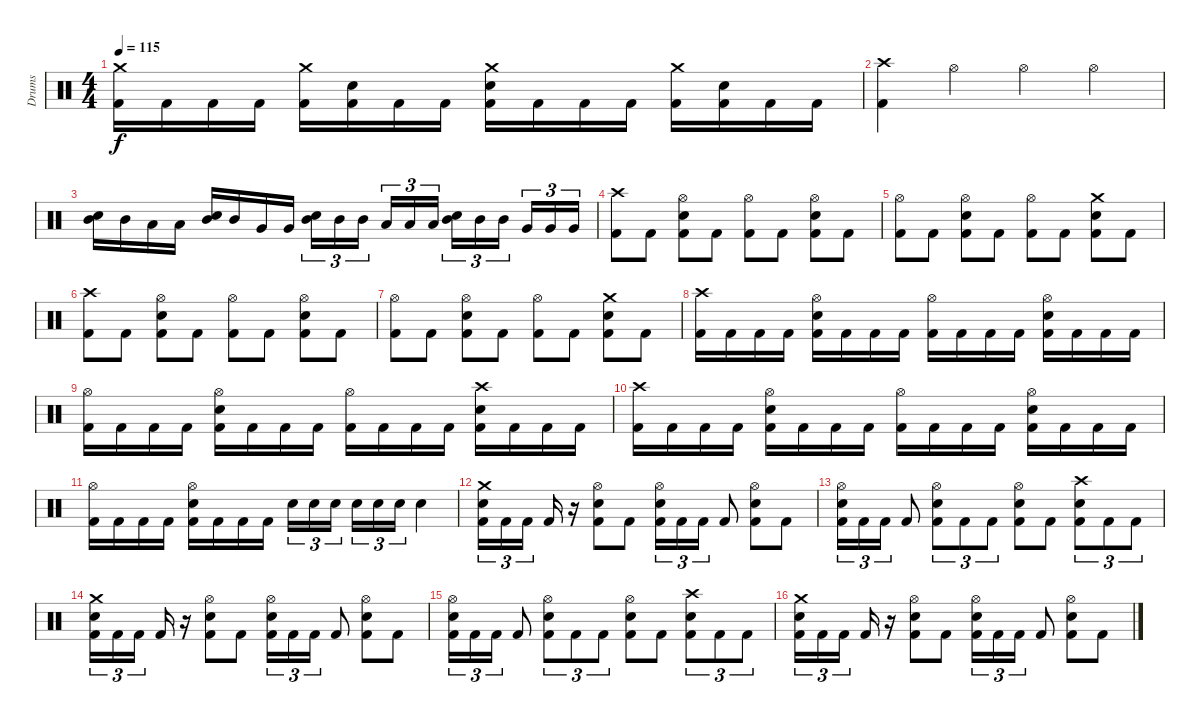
\track ("Drums" "Drums") {instrument percussion}
\staff {score}
\articulation defaults
\ts (4 4)
\tempo 115
\clef neutral
\ks c
("Crash medium (hit)" "Kick (hit) 2").16{dy f} "Kick (hit) 2".16 "Kick (hit) 2".16 "Kick (hit) 2".16 ("Crash medium (hit)" "Kick (hit) 2").16 ("Snare (hit) 2" "Kick (hit) 2").16 "Kick (hit) 2".16 "Kick (hit) 2".16 ("Crash medium (hit)" "Snare (hit) 2" "Kick (hit) 2").16 "Kick (hit) 2".16 "Kick (hit) 2".16 "Kick (hit) 2".16 ("Crash medium (hit)" "Kick (hit) 2").16 ("Snare (hit) 2" "Kick (hit) 2").16 "Kick (hit) 2".16 "Kick (hit) 2".16 |
("Crash high (hit)" "Kick (hit) 2").4 "Hi-Hat (open)".4 "Hi-Hat (open)".4 "Hi-Hat (open)".4 |
("Mid Tom (hit)" "Electric Snare (hit)").16 "Mid Tom (hit)".16 "Low Tom (hit)".16 "Low Tom (hit)".16 ("Mid Tom (hit)" "Electric Snare (hit)").16 "Mid Tom (hit)".16 "Very Low Tom (hit)".16 "Very Low Tom (hit)".16 ("Mid Tom (hit)" "Electric Snare (hit)").16{tu (3 2)} "Mid Tom (hit)".16{tu (3 2)} "Mid Tom (hit)".16{tu (3 2) beam splitsecondary} "Low Tom (hit)".16{tu (3 2)} "Low Tom (hit)".16{tu (3 2)} "Low Tom (hit)".16{tu (3 2)} ("Mid Tom (hit)" "Electric Snare (hit)").16{tu (3 2)} "Mid Tom (hit)".16{tu (3 2)} "Mid Tom (hit)".16{tu (3 2) beam splitsecondary} "Very Low Tom (hit)".16{tu (3 2)} "Very Low Tom (hit)".16{tu (3 2)} "Very Low Tom (hit)".16{tu (3 2)} |
("Crash high (hit)" "Kick (hit) 2").8 "Kick (hit) 2".8 ("Hi-Hat (open)" "Snare (hit) 2" "Kick (hit) 2").8 "Kick (hit) 2".8 ("Hi-Hat (open)" "Kick (hit) 2").8 "Kick (hit) 2".8 ("Hi-Hat (open)" "Snare (hit) 2" "Kick (hit) 2").8 "Kick (hit) 2".8 |
("Hi-Hat (open)" "Kick (hit) 2").8 "Kick (hit) 2".8 ("Hi-Hat (open)" "Snare (hit) 2" "Kick (hit) 2").8 "Kick (hit) 2".8 ("Hi-Hat (open)" "Kick (hit) 2").8 "Kick (hit) 2".8 ("Crash medium (hit)" "Snare (hit) 2" "Kick (hit) 2").8 "Kick (hit) 2".8 |
("Crash high (hit)" "Kick (hit) 2").8 "Kick (hit) 2".8 ("Hi-Hat (open)" "Snare (hit) 2" "Kick (hit) 2").8 "Kick (hit) 2".8 ("Hi-Hat (open)" "Kick (hit) 2").8 "Kick (hit) 2".8 ("Hi-Hat (open)" "Snare (hit) 2" "Kick (hit) 2").8 "Kick (hit) 2".8 |
("Hi-Hat (open)" "Kick (hit) 2").8 "Kick (hit) 2".8 ("Hi-Hat (open)" "Snare (hit) 2" "Kick (hit) 2").8 "Kick (hit) 2".8 ("Hi-Hat (open)" "Kick (hit) 2").8 "Kick (hit) 2".8 ("Crash medium (hit)" "Snare (hit) 2" "Kick (hit) 2").8 "Kick (hit) 2".8 |
("Crash high (hit)" "Kick (hit) 2").16 "Kick (hit) 2".16 "Kick (hit) 2".16 "Kick (hit) 2".16 ("Hi-Hat (open)" "Snare (hit) 2" "Kick (hit) 2").16 "Kick (hit) 2".16 "Kick (hit) 2".16 "Kick (hit) 2".16 ("Hi-Hat (open)" "Kick (hit) 2").16 "Kick (hit) 2".16 "Kick (hit) 2".16 "Kick (hit) 2".16 ("Hi-Hat (open)" "Snare (hit) 2" "Kick (hit) 2").16 "Kick (hit) 2".16 "Kick (hit) 2".16 "Kick (hit) 2".16 |
("Hi-Hat (open)" "Kick (hit) 2").16 "Kick (hit) 2".16 "Kick (hit) 2".16 "Kick (hit) 2".16 ("Hi-Hat (open)" "Snare (hit) 2" "Kick (hit) 2").16 "Kick (hit) 2".16 "Kick (hit) 2".16 "Kick (hit) 2".16 ("Hi-Hat (open)" "Kick (hit) 2").16 "Kick (hit) 2".16 "Kick (hit) 2".16 "Kick (hit) 2".16 ("Crash high (hit)" "Snare (hit) 2" "Kick (hit) 2").16 "Kick (hit) 2".16 "Kick (hit) 2".16 "Kick (hit) 2".16 |
("Crash high (hit)" "Kick (hit) 2").16 "Kick (hit) 2".16 "Kick (hit) 2".16 "Kick (hit) 2".16 ("Hi-Hat (open)" "Snare (hit) 2" "Kick (hit) 2").16 "Kick (hit) 2".16 "Kick (hit) 2".16 "Kick (hit) 2".16 ("Hi-Hat (open)" "Kick (hit) 2").16 "Kick (hit) 2".16 "Kick (hit) 2".16 "Kick (hit) 2".16 ("Hi-Hat (open)" "Snare (hit) 2" "Kick (hit) 2").16 "Kick (hit) 2".16 "Kick (hit) 2".16 "Kick (hit) 2".16 |
("Hi-Hat (open)" "Kick (hit) 2").16 "Kick (hit) 2".16 "Kick (hit) 2".16 "Kick (hit) 2".16 ("Hi-Hat (open)" "Snare (hit) 2" "Kick (hit) 2").16 "Kick (hit) 2".16 "Kick (hit) 2".16 "Kick (hit) 2".16 "Snare (hit) 2".16{tu (3 2)} "Snare (hit) 2".16{tu (3 2)} "Snare (hit) 2".16{tu (3 2) beam splitsecondary} "Snare (hit) 2".16{tu (3 2)} "Snare (hit) 2".16{tu (3 2)} "Snare (hit) 2".16{tu (3 2)} "Snare (hit) 2".4 |
("Crash medium (hit)" "Snare (hit) 2" "Kick (hit) 2").16{tu (3 2)} "Kick (hit) 2".16{tu (3 2)} "Kick (hit) 2".16{tu (3 2) beam splitsecondary} "Kick (hit) 2".16 r.16 ("Hi-Hat (open)" "Snare (hit) 2" "Kick (hit) 2").8 "Kick (hit) 2".8 ("Hi-Hat (open)" "Snare (hit) 2" "Kick (hit) 2").16{tu (3 2)} "Kick (hit) 2".16{tu (3 2)} "Kick (hit) 2".16{tu (3 2)} "Kick (hit) 2".8 ("Hi-Hat (open)" "Snare (hit) 2" "Kick (hit) 2").8 "Kick (hit) 2".8 |
("Hi-Hat (open)" "Snare (hit) 2" "Kick (hit) 2").16{tu (3 2)} "Kick (hit) 2".16{tu (3 2)} "Kick (hit) 2".16{tu (3 2)} "Kick (hit) 2".8 ("Hi-Hat (open)" "Snare (hit) 2" "Kick (hit) 2").8{tu (3 2)} "Kick (hit) 2".8{tu (3 2)} "Kick (hit) 2".8{tu (3 2)} ("Hi-Hat (open)" "Snare (hit) 2" "Kick (hit) 2").8 "Kick (hit) 2".8 ("Crash high (hit)" "Snare (hit) 2" "Kick (hit) 2").8{tu (3 2)} "Kick (hit) 2".8{tu (3 2)} "Kick (hit) 2".8{tu (3 2)} |
("Crash medium (hit)" "Snare (hit) 2" "Kick (hit) 2").16{tu (3 2)} "Kick (hit) 2".16{tu (3 2)} "Kick (hit) 2".16{tu (3 2) beam splitsecondary} "Kick (hit) 2".16 r.16 ("Hi-Hat (open)" "Snare (hit) 2" "Kick (hit) 2").8 "Kick (hit) 2".8 ("Hi-Hat (open)" "Snare (hit) 2" "Kick (hit) 2").16{tu (3 2)} "Kick (hit) 2".16{tu (3 2)} "Kick (hit) 2".16{tu (3 2)} "Kick (hit) 2".8 ("Hi-Hat (open)" "Snare (hit) 2" "Kick (hit) 2").8 "Kick (hit) 2".8 |
("Hi-Hat (open)" "Snare (hit) 2" "Kick (hit) 2").16{tu (3 2)} "Kick (hit) 2".16{tu (3 2)} "Kick (hit) 2".16{tu (3 2)} "Kick (hit) 2".8 ("Hi-Hat (open)" "Snare (hit) 2" "Kick (hit) 2").8{tu (3 2)} "Kick (hit) 2".8{tu (3 2)} "Kick (hit) 2".8{tu (3 2)} ("Hi-Hat (open)" "Snare (hit) 2" "Kick (hit) 2").8 "Kick (hit) 2".8 ("Crash high (hit)" "Snare (hit) 2" "Kick (hit) 2").8{tu (3 2)} "Kick (hit) 2".8{tu (3 2)} "Kick (hit) 2".8{tu (3 2)} |
("Crash medium (hit)" "Snare (hit) 2" "Kick (hit) 2").16{tu (3 2)} "Kick (hit) 2".16{tu (3 2)} "Kick (hit) 2".16{tu (3 2) beam splitsecondary} "Kick (hit) 2".16 r.16 ("Hi-Hat (open)" "Snare (hit) 2" "Kick (hit) 2").8 "Kick (hit) 2".8 ("Hi-Hat (open)" "Snare (hit) 2" "Kick (hit) 2").16{tu (3 2)} "Kick (hit) 2".16{tu (3 2)} "Kick (hit) 2".16{tu (3 2)} "Kick (hit) 2".8 ("Hi-Hat (open)" "Snare (hit) 2" "Kick (hit) 2").8 "Kick (hit) 2".8
